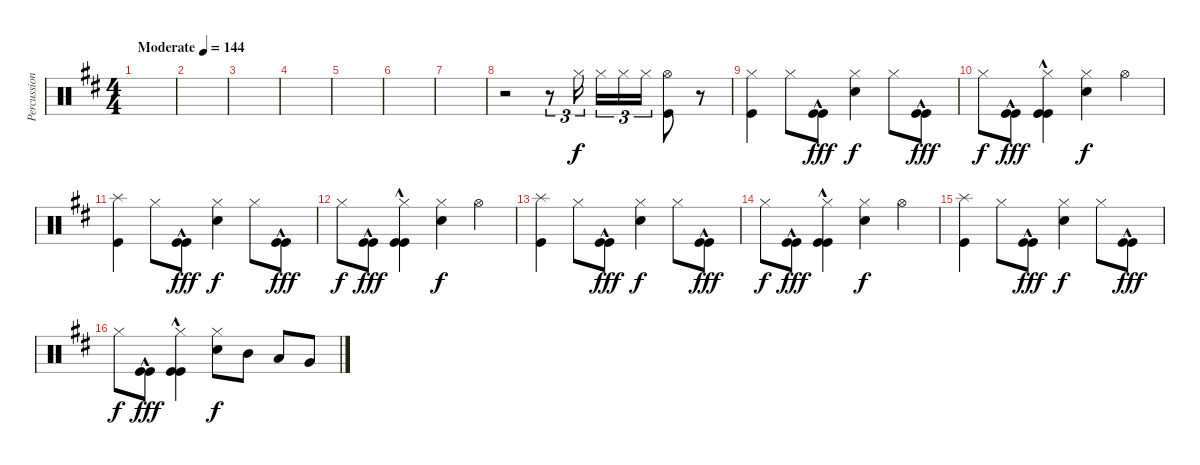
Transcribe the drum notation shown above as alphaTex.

\track ("Percussion" "Percussion") {instrument percussion}
\staff {score}
\articulation defaults
\ts (4 4)
\tempo (144 "Moderate")
\clef neutral
\ks bminor
|
|
|
|
|
|
|
r.2 r.8{tu (3 2)} "Hi-Hat (closed)".16{tu (3 2) beam splitsecondary} "Hi-Hat (closed)".16{tu (3 2)} "Hi-Hat (closed)".16{tu (3 2)} "Hi-Hat (closed)".16{tu (3 2)} ("Kick (hit)" "Hi-Hat (open)").8 r.8 |
("Hi-Hat (closed)" "Kick (hit)").4 "Hi-Hat (closed)".8 ("Kick (hit)"{hac} "Kick (hit)").8{dy fff} ("Hi-Hat (closed)" "Snare (hit) 2").4{dy f} "Hi-Hat (closed)".8 ("Kick (hit)"{hac} "Kick (hit)").8{dy fff} |
"Hi-Hat (closed)".8{dy f} ("Kick (hit)"{hac} "Kick (hit)").8{dy fff} ("Kick (hit)"{hac} "Hi-Hat (closed)" "Kick (hit)").4 ("Hi-Hat (closed)" "Snare (hit) 2").4{dy f} "Hi-Hat (open)".4 |
("Splash (hit)" "Kick (hit)").4 "Hi-Hat (closed)".8 ("Kick (hit)"{hac} "Kick (hit)").8{dy fff} ("Hi-Hat (closed)" "Snare (hit) 2").4{dy f} "Hi-Hat (closed)".8 ("Kick (hit)"{hac} "Kick (hit)").8{dy fff} |
"Hi-Hat (closed)".8{dy f} ("Kick (hit)"{hac} "Kick (hit)").8{dy fff} ("Kick (hit)"{hac} "Hi-Hat (closed)" "Kick (hit)").4 ("Hi-Hat (closed)" "Snare (hit) 2").4{dy f} "Hi-Hat (open)".4 |
("Splash (hit)" "Kick (hit)").4 "Hi-Hat (closed)".8 ("Kick (hit)"{hac} "Kick (hit)").8{dy fff} ("Hi-Hat (closed)" "Snare (hit) 2").4{dy f} "Hi-Hat (closed)".8 ("Kick (hit)"{hac} "Kick (hit)").8{dy fff} |
"Hi-Hat (closed)".8{dy f} ("Kick (hit)"{hac} "Kick (hit)").8{dy fff} ("Kick (hit)"{hac} "Hi-Hat (closed)" "Kick (hit)").4 ("Hi-Hat (closed)" "Snare (hit) 2").4{dy f} "Hi-Hat (open)".4 |
("Splash (hit)" "Kick (hit)").4 "Hi-Hat (closed)".8 ("Kick (hit)"{hac} "Kick (hit)").8{dy fff} ("Hi-Hat (closed)" "Snare (hit) 2").4{dy f} "Hi-Hat (closed)".8 ("Kick (hit)"{hac} "Kick (hit)").8{dy fff} |
"Hi-Hat (closed)".8{dy f} ("Kick (hit)"{hac} "Kick (hit)").8{dy fff} ("Kick (hit)"{hac} "Hi-Hat (closed)" "Kick (hit)").4 ("Hi-Hat (closed)" "Snare (hit) 2").8{dy f} "Mid Tom (hit)".8 "Low Tom (hit)".8 "Very Low Tom (hit)".8
